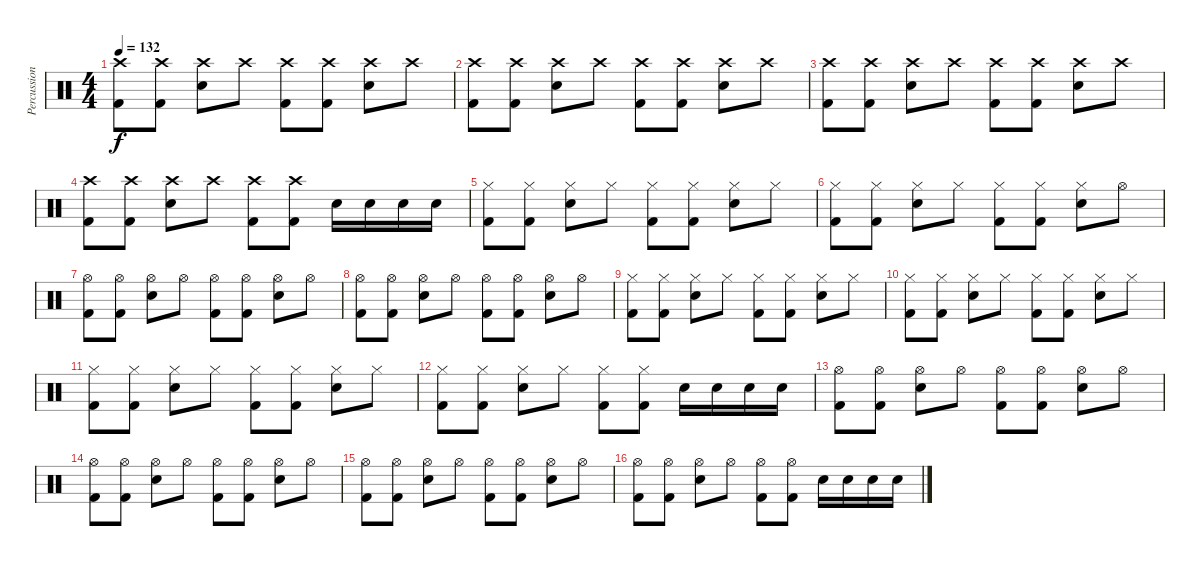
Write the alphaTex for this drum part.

\track ("Percussion" "Percussion") {instrument percussion}
\staff {score}
\articulation defaults
\ts (4 4)
\tempo 132
\clef neutral
\ks c
("Crash high (hit)" "Kick (hit) 2").8{dy f} ("Crash high (hit)" "Kick (hit) 2").8 ("Crash high (hit)" "Electric Snare (hit)").8 "Crash high (hit)".8 ("Crash high (hit)" "Kick (hit) 2").8 ("Crash high (hit)" "Kick (hit) 2").8 ("Crash high (hit)" "Electric Snare (hit)").8 "Crash high (hit)".8 |
("Crash high (hit)" "Kick (hit) 2").8 ("Crash high (hit)" "Kick (hit) 2").8 ("Crash high (hit)" "Electric Snare (hit)").8 "Crash high (hit)".8 ("Crash high (hit)" "Kick (hit) 2").8 ("Crash high (hit)" "Kick (hit) 2").8 ("Crash high (hit)" "Electric Snare (hit)").8 "Crash high (hit)".8 |
("Crash high (hit)" "Kick (hit) 2").8 ("Crash high (hit)" "Kick (hit) 2").8 ("Crash high (hit)" "Electric Snare (hit)").8 "Crash high (hit)".8 ("Crash high (hit)" "Kick (hit) 2").8 ("Crash high (hit)" "Kick (hit) 2").8 ("Crash high (hit)" "Electric Snare (hit)").8 "Crash high (hit)".8 |
("Crash high (hit)" "Kick (hit) 2").8 ("Crash high (hit)" "Kick (hit) 2").8 ("Crash high (hit)" "Electric Snare (hit)").8 "Crash high (hit)".8 ("Crash high (hit)" "Kick (hit) 2").8 ("Crash high (hit)" "Kick (hit) 2").8 "Electric Snare (hit)".16 "Electric Snare (hit)".16 "Electric Snare (hit)".16 "Electric Snare (hit)".16 |
("Hi-Hat (closed)" "Kick (hit) 2").8 ("Hi-Hat (closed)" "Kick (hit) 2").8 ("Hi-Hat (closed)" "Electric Snare (hit)").8 "Hi-Hat (closed)".8 ("Hi-Hat (closed)" "Kick (hit) 2").8 ("Hi-Hat (closed)" "Kick (hit) 2").8 ("Hi-Hat (closed)" "Electric Snare (hit)").8 "Hi-Hat (closed)".8 |
("Hi-Hat (closed)" "Kick (hit) 2").8 ("Hi-Hat (closed)" "Kick (hit) 2").8 ("Hi-Hat (closed)" "Electric Snare (hit)").8 "Hi-Hat (closed)".8 ("Hi-Hat (closed)" "Kick (hit) 2").8 ("Hi-Hat (closed)" "Kick (hit) 2").8 ("Hi-Hat (closed)" "Electric Snare (hit)").8 "Hi-Hat (open)".8 |
("Hi-Hat (open)" "Kick (hit) 2").8 ("Hi-Hat (open)" "Kick (hit) 2").8 ("Hi-Hat (open)" "Electric Snare (hit)").8 "Hi-Hat (open)".8 ("Hi-Hat (open)" "Kick (hit) 2").8 ("Hi-Hat (open)" "Kick (hit) 2").8 ("Hi-Hat (open)" "Electric Snare (hit)").8 "Hi-Hat (open)".8 |
("Hi-Hat (open)" "Kick (hit) 2").8 ("Hi-Hat (open)" "Kick (hit) 2").8 ("Hi-Hat (open)" "Electric Snare (hit)").8 "Hi-Hat (open)".8 ("Hi-Hat (open)" "Kick (hit) 2").8 ("Hi-Hat (open)" "Kick (hit) 2").8 ("Hi-Hat (open)" "Electric Snare (hit)").8 "Hi-Hat (open)".8 |
("Hi-Hat (closed)" "Kick (hit) 2").8 ("Hi-Hat (closed)" "Kick (hit) 2").8 ("Hi-Hat (closed)" "Electric Snare (hit)").8 "Hi-Hat (closed)".8 ("Hi-Hat (closed)" "Kick (hit) 2").8 ("Hi-Hat (closed)" "Kick (hit) 2").8 ("Hi-Hat (closed)" "Electric Snare (hit)").8 "Hi-Hat (closed)".8 |
("Hi-Hat (closed)" "Kick (hit) 2").8 ("Hi-Hat (closed)" "Kick (hit) 2").8 ("Hi-Hat (closed)" "Electric Snare (hit)").8 "Hi-Hat (closed)".8 ("Hi-Hat (closed)" "Kick (hit) 2").8 ("Hi-Hat (closed)" "Kick (hit) 2").8 ("Hi-Hat (closed)" "Electric Snare (hit)").8 "Hi-Hat (closed)".8 |
("Hi-Hat (closed)" "Kick (hit) 2").8 ("Hi-Hat (closed)" "Kick (hit) 2").8 ("Hi-Hat (closed)" "Electric Snare (hit)").8 "Hi-Hat (closed)".8 ("Hi-Hat (closed)" "Kick (hit) 2").8 ("Hi-Hat (closed)" "Kick (hit) 2").8 ("Hi-Hat (closed)" "Electric Snare (hit)").8 "Hi-Hat (closed)".8 |
("Hi-Hat (closed)" "Kick (hit) 2").8 ("Hi-Hat (closed)" "Kick (hit) 2").8 ("Hi-Hat (closed)" "Electric Snare (hit)").8 "Hi-Hat (closed)".8 ("Hi-Hat (closed)" "Kick (hit) 2").8 ("Hi-Hat (closed)" "Kick (hit) 2").8 "Electric Snare (hit)".16 "Electric Snare (hit)".16 "Electric Snare (hit)".16 "Electric Snare (hit)".16 |
("Hi-Hat (open)" "Kick (hit) 2").8 ("Hi-Hat (open)" "Kick (hit) 2").8 ("Hi-Hat (open)" "Electric Snare (hit)").8 "Hi-Hat (open)".8 ("Hi-Hat (open)" "Kick (hit) 2").8 ("Hi-Hat (open)" "Kick (hit) 2").8 ("Hi-Hat (open)" "Electric Snare (hit)").8 "Hi-Hat (open)".8 |
("Hi-Hat (open)" "Kick (hit) 2").8 ("Hi-Hat (open)" "Kick (hit) 2").8 ("Hi-Hat (open)" "Electric Snare (hit)").8 "Hi-Hat (open)".8 ("Hi-Hat (open)" "Kick (hit) 2").8 ("Hi-Hat (open)" "Kick (hit) 2").8 ("Hi-Hat (open)" "Electric Snare (hit)").8 "Hi-Hat (open)".8 |
("Hi-Hat (open)" "Kick (hit) 2").8 ("Hi-Hat (open)" "Kick (hit) 2").8 ("Hi-Hat (open)" "Electric Snare (hit)").8 "Hi-Hat (open)".8 ("Hi-Hat (open)" "Kick (hit) 2").8 ("Hi-Hat (open)" "Kick (hit) 2").8 ("Hi-Hat (open)" "Electric Snare (hit)").8 "Hi-Hat (open)".8 |
("Hi-Hat (open)" "Kick (hit) 2").8 ("Hi-Hat (open)" "Kick (hit) 2").8 ("Hi-Hat (open)" "Electric Snare (hit)").8 "Hi-Hat (open)".8 ("Hi-Hat (open)" "Kick (hit) 2").8 ("Hi-Hat (open)" "Kick (hit) 2").8 "Electric Snare (hit)".16 "Electric Snare (hit)".16 "Electric Snare (hit)".16 "Electric Snare (hit)".16
